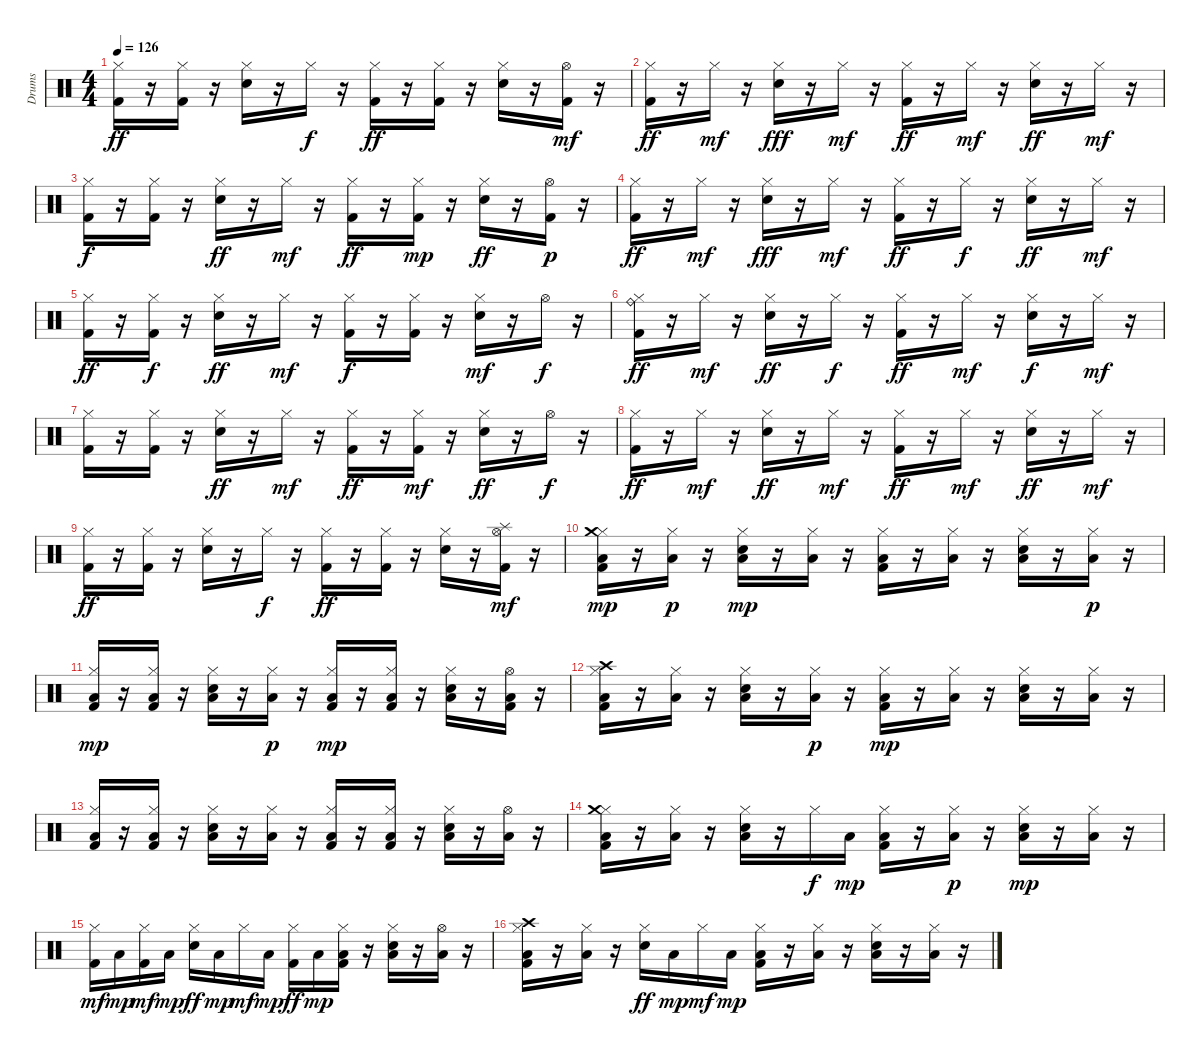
\track ("Drums" "Drums") {instrument percussion}
\staff {score}
\articulation defaults
\ts (4 4)
\tempo 126
\clef neutral
\ks c
("Kick (hit) 2" "Hi-Hat (closed)").16{dy ff} r.16 ("Hi-Hat (closed)" "Kick (hit) 2").16 r.16 ("Hi-Hat (closed)" "Snare (hit) 2").16 r.16 "Hi-Hat (closed)".16{dy f} r.16 ("Kick (hit) 2" "Hi-Hat (closed)").16{dy ff} r.16 ("Hi-Hat (closed)" "Kick (hit) 2").16 r.16 ("Hi-Hat (closed)" "Snare (hit) 2").16 r.16 ("Hi-Hat (open)" "Kick (hit) 2").16{dy mf} r.16 |
("Kick (hit) 2" "Hi-Hat (closed)").16{dy ff} r.16 "Hi-Hat (closed)".16{dy mf} r.16 ("Hi-Hat (closed)" "Snare (hit) 2").16{dy fff} r.16 "Hi-Hat (closed)".16{dy mf} r.16 ("Kick (hit) 2" "Hi-Hat (closed)").16{dy ff} r.16 "Hi-Hat (closed)".16{dy mf} r.16 ("Hi-Hat (closed)" "Snare (hit) 2").16{dy ff} r.16 "Hi-Hat (closed)".16{dy mf} r.16 |
("Kick (hit) 2" "Hi-Hat (closed)").16{dy f} r.16 ("Hi-Hat (closed)" "Kick (hit) 2").16 r.16 ("Hi-Hat (closed)" "Snare (hit) 2").16{dy ff} r.16 "Hi-Hat (closed)".16{dy mf} r.16 ("Hi-Hat (closed)" "Kick (hit) 2").16{dy ff} r.16 ("Kick (hit) 2" "Hi-Hat (closed)").16{dy mp} r.16 ("Hi-Hat (closed)" "Snare (hit) 2").16{dy ff} r.16 ("Hi-Hat (open)" "Kick (hit) 2").16{dy p} r.16 |
("Hi-Hat (closed)" "Kick (hit) 2").16{dy ff} r.16 "Hi-Hat (closed)".16{dy mf} r.16 ("Hi-Hat (closed)" "Snare (hit) 2").16{dy fff} r.16 "Hi-Hat (closed)".16{dy mf} r.16 ("Kick (hit) 2" "Hi-Hat (closed)").16{dy ff} r.16 "Hi-Hat (closed)".16{dy f} r.16 ("Snare (hit) 2" "Hi-Hat (closed)").16{dy ff} r.16 "Hi-Hat (closed)".16{dy mf} r.16 |
("Hi-Hat (closed)" "Kick (hit) 2").16{dy ff} r.16 ("Kick (hit) 2" "Hi-Hat (closed)").16{dy f} r.16 ("Hi-Hat (closed)" "Snare (hit) 2").16{dy ff} r.16 "Hi-Hat (closed)".16{dy mf} r.16 ("Kick (hit) 2" "Hi-Hat (closed)").16{dy f} r.16 ("Hi-Hat (closed)" "Kick (hit) 2").16 r.16 ("Snare (hit) 2" "Hi-Hat (closed)").16{dy mf} r.16 "Hi-Hat (open)".16{dy f} r.16 |
("Hi-Hat (closed)" "Kick (hit) 2" "Ride (bell)").16{dy ff} r.16 "Hi-Hat (closed)".16{dy mf} r.16 ("Snare (hit) 2" "Hi-Hat (closed)").16{dy ff} r.16 "Hi-Hat (closed)".16{dy f} r.16 ("Kick (hit) 2" "Hi-Hat (closed)").16{dy ff} r.16 "Hi-Hat (closed)".16{dy mf} r.16 ("Snare (hit) 2" "Hi-Hat (closed)").16{dy f} r.16 "Hi-Hat (closed)".16{dy mf} r.16 |
("Kick (hit) 2" "Hi-Hat (closed)").16 r.16 ("Hi-Hat (closed)" "Kick (hit) 2").16 r.16 ("Hi-Hat (closed)" "Snare (hit) 2").16{dy ff} r.16 "Hi-Hat (closed)".16{dy mf} r.16 ("Hi-Hat (closed)" "Kick (hit) 2").16{dy ff} r.16 ("Hi-Hat (closed)" "Kick (hit) 2").16{dy mf} r.16 ("Hi-Hat (closed)" "Snare (hit) 2").16{dy ff} r.16 "Hi-Hat (open)".16{dy f} r.16 |
("Hi-Hat (closed)" "Kick (hit) 2").16{dy ff} r.16 "Hi-Hat (closed)".16{dy mf} r.16 ("Hi-Hat (closed)" "Snare (hit) 2").16{dy ff} r.16 "Hi-Hat (closed)".16{dy mf} r.16 ("Kick (hit) 2" "Hi-Hat (closed)").16{dy ff} r.16 "Hi-Hat (closed)".16{dy mf} r.16 ("Hi-Hat (closed)" "Snare (hit) 2").16{dy ff} r.16 "Hi-Hat (closed)".16{dy mf} r.16 |
("Kick (hit) 2" "Hi-Hat (closed)").16{dy ff} r.16 ("Hi-Hat (closed)" "Kick (hit) 2").16 r.16 ("Hi-Hat (closed)" "Snare (hit) 2").16 r.16 "Hi-Hat (closed)".16{dy f} r.16 ("Kick (hit) 2" "Hi-Hat (closed)").16{dy ff} r.16 ("Hi-Hat (closed)" "Kick (hit) 2").16 r.16 ("Hi-Hat (closed)" "Snare (hit) 2").16 r.16 ("Hi-Hat (open)" "Kick (hit) 2" "Splash (hit)").16{dy mf} r.16 |
("Kick (hit) 2" "Hi-Hat (closed)" "Low Floor Tom (hit)" "Crash medium (hit)").16{dy mp} r.16 ("Hi-Hat (closed)" "Low Floor Tom (hit)").16{dy p} r.16 ("Hi-Hat (closed)" "Snare (hit) 2" "Low Floor Tom (hit)").16{dy mp} r.16 ("Hi-Hat (closed)" "Low Floor Tom (hit)").16 r.16 ("Kick (hit) 2" "Hi-Hat (closed)" "Low Floor Tom (hit)").16 r.16 ("Hi-Hat (closed)" "Low Floor Tom (hit)").16 r.16 ("Hi-Hat (closed)" "Snare (hit) 2" "Low Floor Tom (hit)").16 r.16 ("Hi-Hat (closed)" "Low Floor Tom (hit)").16{dy p} r.16 |
("Kick (hit) 2" "Hi-Hat (closed)" "Low Floor Tom (hit)").16{dy mp} r.16 ("Hi-Hat (closed)" "Kick (hit) 2" "Low Floor Tom (hit)").16 r.16 ("Hi-Hat (closed)" "Snare (hit) 2" "Low Floor Tom (hit)").16 r.16 ("Hi-Hat (closed)" "Low Floor Tom (hit)").16{dy p} r.16 ("Hi-Hat (closed)" "Kick (hit) 2" "Low Floor Tom (hit)").16{dy mp} r.16 ("Kick (hit) 2" "Hi-Hat (closed)" "Low Floor Tom (hit)").16 r.16 ("Hi-Hat (closed)" "Snare (hit) 2" "Low Floor Tom (hit)").16 r.16 ("Hi-Hat (open)" "Kick (hit) 2" "Low Floor Tom (hit)").16 r.16 |
("Hi-Hat (closed)" "Kick (hit) 2" "Low Floor Tom (hit)" "Crash high (hit)").16 r.16 ("Hi-Hat (closed)" "Low Floor Tom (hit)").16 r.16 ("Hi-Hat (closed)" "Snare (hit) 2" "Low Floor Tom (hit)").16 r.16 ("Hi-Hat (closed)" "Low Floor Tom (hit)").16{dy p} r.16 ("Kick (hit) 2" "Hi-Hat (closed)" "Low Floor Tom (hit)").16{dy mp} r.16 ("Hi-Hat (closed)" "Low Floor Tom (hit)").16 r.16 ("Snare (hit) 2" "Hi-Hat (closed)" "Low Floor Tom (hit)").16 r.16 ("Hi-Hat (closed)" "Low Floor Tom (hit)").16 r.16 |
("Hi-Hat (closed)" "Kick (hit) 2" "Low Floor Tom (hit)").16 r.16 ("Kick (hit) 2" "Hi-Hat (closed)" "Low Floor Tom (hit)").16 r.16 ("Hi-Hat (closed)" "Snare (hit) 2" "Low Floor Tom (hit)").16 r.16 ("Hi-Hat (closed)" "Low Floor Tom (hit)").16 r.16 ("Kick (hit) 2" "Hi-Hat (closed)" "Low Floor Tom (hit)").16 r.16 ("Hi-Hat (closed)" "Kick (hit) 2" "Low Floor Tom (hit)").16 r.16 ("Snare (hit) 2" "Hi-Hat (closed)" "Low Floor Tom (hit)").16 r.16 ("Hi-Hat (open)" "Low Floor Tom (hit)").16 r.16 |
("Hi-Hat (closed)" "Kick (hit) 2" "Low Floor Tom (hit)" "Crash medium (hit)").16 r.16 ("Hi-Hat (closed)" "Low Floor Tom (hit)").16 r.16 ("Snare (hit) 2" "Hi-Hat (closed)" "Low Floor Tom (hit)").16 r.16 "Hi-Hat (closed)".16{dy f} "Low Floor Tom (hit)".16{dy mp} ("Kick (hit) 2" "Hi-Hat (closed)" "Low Floor Tom (hit)").16 r.16 ("Hi-Hat (closed)" "Low Floor Tom (hit)").16{dy p} r.16 ("Snare (hit) 2" "Hi-Hat (closed)" "Low Floor Tom (hit)").16{dy mp} r.16 ("Hi-Hat (closed)" "Low Floor Tom (hit)").16 r.16 |
("Kick (hit) 2" "Hi-Hat (closed)").16{dy mf} "Low Floor Tom (hit)".16{dy mp} ("Hi-Hat (closed)" "Kick (hit) 2").16{dy mf} "Low Floor Tom (hit)".16{dy mp} ("Hi-Hat (closed)" "Snare (hit) 2").16{dy ff} "Low Floor Tom (hit)".16{dy mp} "Hi-Hat (closed)".16{dy mf} "Low Floor Tom (hit)".16{dy mp} ("Hi-Hat (closed)" "Kick (hit) 2").16{dy ff} "Low Floor Tom (hit)".16{dy mp} ("Hi-Hat (closed)" "Kick (hit) 2" "Low Floor Tom (hit)").16 r.16 ("Hi-Hat (closed)" "Snare (hit) 2" "Low Floor Tom (hit)").16 r.16 ("Hi-Hat (open)" "Low Floor Tom (hit)").16 r.16 |
("Hi-Hat (closed)" "Kick (hit) 2" "Low Floor Tom (hit)" "Crash high (hit)").16 r.16 ("Hi-Hat (closed)" "Low Floor Tom (hit)").16 r.16 ("Hi-Hat (closed)" "Snare (hit) 2").16{dy ff} "Low Floor Tom (hit)".16{dy mp} "Hi-Hat (closed)".16{dy mf} "Low Floor Tom (hit)".16{dy mp} ("Kick (hit) 2" "Hi-Hat (closed)" "Low Floor Tom (hit)").16 r.16 ("Hi-Hat (closed)" "Low Floor Tom (hit)").16 r.16 ("Hi-Hat (closed)" "Snare (hit) 2" "Low Floor Tom (hit)").16 r.16 ("Hi-Hat (closed)" "Low Floor Tom (hit)").16 r.16
